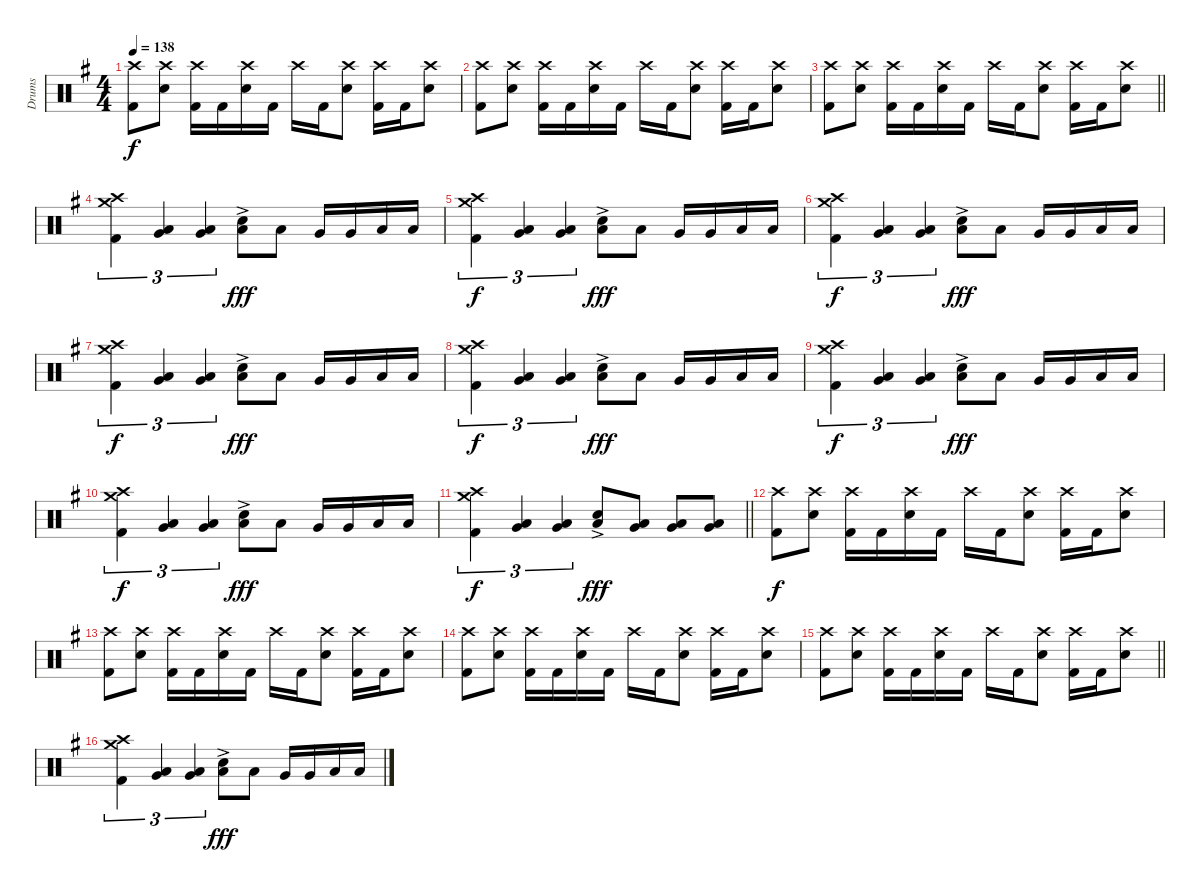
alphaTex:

\track ("Drums" "Drums") {instrument percussion}
\staff {score}
\articulation defaults
\ts (4 4)
\tempo 138
\clef neutral
\ks eminor
("Crash high (hit)" "Kick (hit) 2").8{dy f} ("Crash high (hit)" "Snare (hit) 2").8 ("Crash high (hit)" "Kick (hit) 2").16 "Kick (hit) 2".16 ("Crash high (hit)" "Snare (hit) 2").16 "Kick (hit) 2".16 "Crash high (hit)".16 "Kick (hit) 2".16 ("Crash high (hit)" "Snare (hit) 2").8 ("Crash high (hit)" "Kick (hit) 2").16 "Kick (hit) 2".16 ("Crash high (hit)" "Snare (hit) 2").8 |
("Crash high (hit)" "Kick (hit) 2").8 ("Crash high (hit)" "Snare (hit) 2").8 ("Crash high (hit)" "Kick (hit) 2").16 "Kick (hit) 2".16 ("Crash high (hit)" "Snare (hit) 2").16 "Kick (hit) 2".16 "Crash high (hit)".16 "Kick (hit) 2".16 ("Crash high (hit)" "Snare (hit) 2").8 ("Crash high (hit)" "Kick (hit) 2").16 "Kick (hit) 2".16 ("Crash high (hit)" "Snare (hit) 2").8 |
\barLineRight lightlight
("Crash high (hit)" "Kick (hit) 2").8 ("Crash high (hit)" "Snare (hit) 2").8 ("Crash high (hit)" "Kick (hit) 2").16 "Kick (hit) 2".16 ("Crash high (hit)" "Snare (hit) 2").16 "Kick (hit) 2".16 "Crash high (hit)".16 "Kick (hit) 2".16 ("Crash high (hit)" "Snare (hit) 2").8 ("Crash high (hit)" "Kick (hit) 2").16 "Kick (hit) 2".16 ("Crash high (hit)" "Snare (hit) 2").8 |
("Crash high (hit)" "Crash medium (hit)" "Kick (hit) 2").4{tu (3 2)} ("Low Tom (hit)" "Very Low Tom (hit)").4{tu (3 2)} ("Very Low Tom (hit)" "Low Floor Tom (hit)").4{tu (3 2)} ("Snare (hit) 2"{ac} "Low Floor Tom (hit)").8{dy fff} "Low Tom (hit)".8 "Very Low Tom (hit)".16 "Very Low Tom (hit)".16 "Low Floor Tom (hit)".16 "Low Floor Tom (hit)".16 |
("Crash high (hit)" "Crash medium (hit)" "Kick (hit) 2").4{tu (3 2) dy f} ("Low Tom (hit)" "Very Low Tom (hit)").4{tu (3 2)} ("Very Low Tom (hit)" "Low Floor Tom (hit)").4{tu (3 2)} ("Snare (hit) 2"{ac} "Low Floor Tom (hit)").8{dy fff} "Low Tom (hit)".8 "Very Low Tom (hit)".16 "Very Low Tom (hit)".16 "Low Floor Tom (hit)".16 "Low Floor Tom (hit)".16 |
("Crash high (hit)" "Crash medium (hit)" "Kick (hit) 2").4{tu (3 2) dy f} ("Low Tom (hit)" "Very Low Tom (hit)").4{tu (3 2)} ("Very Low Tom (hit)" "Low Floor Tom (hit)").4{tu (3 2)} ("Snare (hit) 2"{ac} "Low Floor Tom (hit)").8{dy fff} "Low Tom (hit)".8 "Very Low Tom (hit)".16 "Very Low Tom (hit)".16 "Low Floor Tom (hit)".16 "Low Floor Tom (hit)".16 |
("Crash high (hit)" "Crash medium (hit)" "Kick (hit) 2").4{tu (3 2) dy f} ("Low Tom (hit)" "Very Low Tom (hit)").4{tu (3 2)} ("Very Low Tom (hit)" "Low Floor Tom (hit)").4{tu (3 2)} ("Snare (hit) 2"{ac} "Low Floor Tom (hit)").8{dy fff} "Low Tom (hit)".8 "Very Low Tom (hit)".16 "Very Low Tom (hit)".16 "Low Floor Tom (hit)".16 "Low Floor Tom (hit)".16 |
("Crash high (hit)" "Crash medium (hit)" "Kick (hit) 2").4{tu (3 2) dy f} ("Low Tom (hit)" "Very Low Tom (hit)").4{tu (3 2)} ("Very Low Tom (hit)" "Low Floor Tom (hit)").4{tu (3 2)} ("Snare (hit) 2"{ac} "Low Floor Tom (hit)").8{dy fff} "Low Tom (hit)".8 "Very Low Tom (hit)".16 "Very Low Tom (hit)".16 "Low Floor Tom (hit)".16 "Low Floor Tom (hit)".16 |
("Crash high (hit)" "Crash medium (hit)" "Kick (hit) 2").4{tu (3 2) dy f} ("Low Tom (hit)" "Very Low Tom (hit)").4{tu (3 2)} ("Very Low Tom (hit)" "Low Floor Tom (hit)").4{tu (3 2)} ("Snare (hit) 2"{ac} "Low Floor Tom (hit)").8{dy fff} "Low Tom (hit)".8 "Very Low Tom (hit)".16 "Very Low Tom (hit)".16 "Low Floor Tom (hit)".16 "Low Floor Tom (hit)".16 |
("Crash high (hit)" "Crash medium (hit)" "Kick (hit) 2").4{tu (3 2) dy f} ("Low Tom (hit)" "Very Low Tom (hit)").4{tu (3 2)} ("Very Low Tom (hit)" "Low Floor Tom (hit)").4{tu (3 2)} ("Snare (hit) 2"{ac} "Low Floor Tom (hit)").8{dy fff} "Low Tom (hit)".8 "Very Low Tom (hit)".16 "Very Low Tom (hit)".16 "Low Floor Tom (hit)".16 "Low Floor Tom (hit)".16 |
\barLineRight lightlight
("Crash high (hit)" "Crash medium (hit)" "Kick (hit) 2").4{tu (3 2) dy f} ("Low Tom (hit)" "Very Low Tom (hit)").4{tu (3 2)} ("Very Low Tom (hit)" "Low Floor Tom (hit)").4{tu (3 2)} ("Snare (hit) 2"{ac} "Low Floor Tom (hit)").8{dy fff} ("Low Tom (hit)" "Very Low Tom (hit)").8 ("Very Low Tom (hit)" "Low Floor Tom (hit)").8 ("Very Low Tom (hit)" "Low Floor Tom (hit)").8 |
("Crash high (hit)" "Kick (hit) 2").8{dy f} ("Crash high (hit)" "Snare (hit) 2").8 ("Crash high (hit)" "Kick (hit) 2").16 "Kick (hit) 2".16 ("Crash high (hit)" "Snare (hit) 2").16 "Kick (hit) 2".16 "Crash high (hit)".16 "Kick (hit) 2".16 ("Crash high (hit)" "Snare (hit) 2").8 ("Crash high (hit)" "Kick (hit) 2").16 "Kick (hit) 2".16 ("Crash high (hit)" "Snare (hit) 2").8 |
("Crash high (hit)" "Kick (hit) 2").8 ("Crash high (hit)" "Snare (hit) 2").8 ("Crash high (hit)" "Kick (hit) 2").16 "Kick (hit) 2".16 ("Crash high (hit)" "Snare (hit) 2").16 "Kick (hit) 2".16 "Crash high (hit)".16 "Kick (hit) 2".16 ("Crash high (hit)" "Snare (hit) 2").8 ("Crash high (hit)" "Kick (hit) 2").16 "Kick (hit) 2".16 ("Crash high (hit)" "Snare (hit) 2").8 |
("Crash high (hit)" "Kick (hit) 2").8 ("Crash high (hit)" "Snare (hit) 2").8 ("Crash high (hit)" "Kick (hit) 2").16 "Kick (hit) 2".16 ("Crash high (hit)" "Snare (hit) 2").16 "Kick (hit) 2".16 "Crash high (hit)".16 "Kick (hit) 2".16 ("Crash high (hit)" "Snare (hit) 2").8 ("Crash high (hit)" "Kick (hit) 2").16 "Kick (hit) 2".16 ("Crash high (hit)" "Snare (hit) 2").8 |
\barLineRight lightlight
("Crash high (hit)" "Kick (hit) 2").8 ("Crash high (hit)" "Snare (hit) 2").8 ("Crash high (hit)" "Kick (hit) 2").16 "Kick (hit) 2".16 ("Crash high (hit)" "Snare (hit) 2").16 "Kick (hit) 2".16 "Crash high (hit)".16 "Kick (hit) 2".16 ("Crash high (hit)" "Snare (hit) 2").8 ("Crash high (hit)" "Kick (hit) 2").16 "Kick (hit) 2".16 ("Crash high (hit)" "Snare (hit) 2").8 |
("Crash high (hit)" "Crash medium (hit)" "Kick (hit) 2").4{tu (3 2)} ("Low Tom (hit)" "Very Low Tom (hit)").4{tu (3 2)} ("Very Low Tom (hit)" "Low Floor Tom (hit)").4{tu (3 2)} ("Snare (hit) 2"{ac} "Low Floor Tom (hit)").8{dy fff} "Low Tom (hit)".8 "Very Low Tom (hit)".16 "Very Low Tom (hit)".16 "Low Floor Tom (hit)".16 "Low Floor Tom (hit)".16
